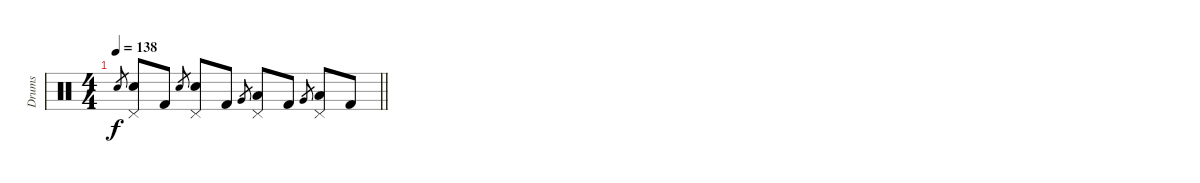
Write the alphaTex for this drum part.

\track ("Drums" "Drums") {instrument percussion}
\staff {score}
\articulation defaults
\ts (4 4)
\tempo 138
\clef neutral
\barLineRight lightlight
\ks c "Snare (hit) 2".8{gr dy f}
("Pedal Hi-Hat (hit)" "Snare (hit) 2").8 "Kick (hit) 2".8 "Snare (hit) 2".8{gr} ("Pedal Hi-Hat (hit)" "Snare (hit) 2").8 "Kick (hit) 2".8 "Very Low Tom (hit)".8{gr} ("Pedal Hi-Hat (hit)" "Low Tom (hit)").8 "Kick (hit) 2".8 "Very Low Tom (hit)".8{gr} ("Pedal Hi-Hat (hit)" "Low Tom (hit)").8 "Kick (hit) 2".8
